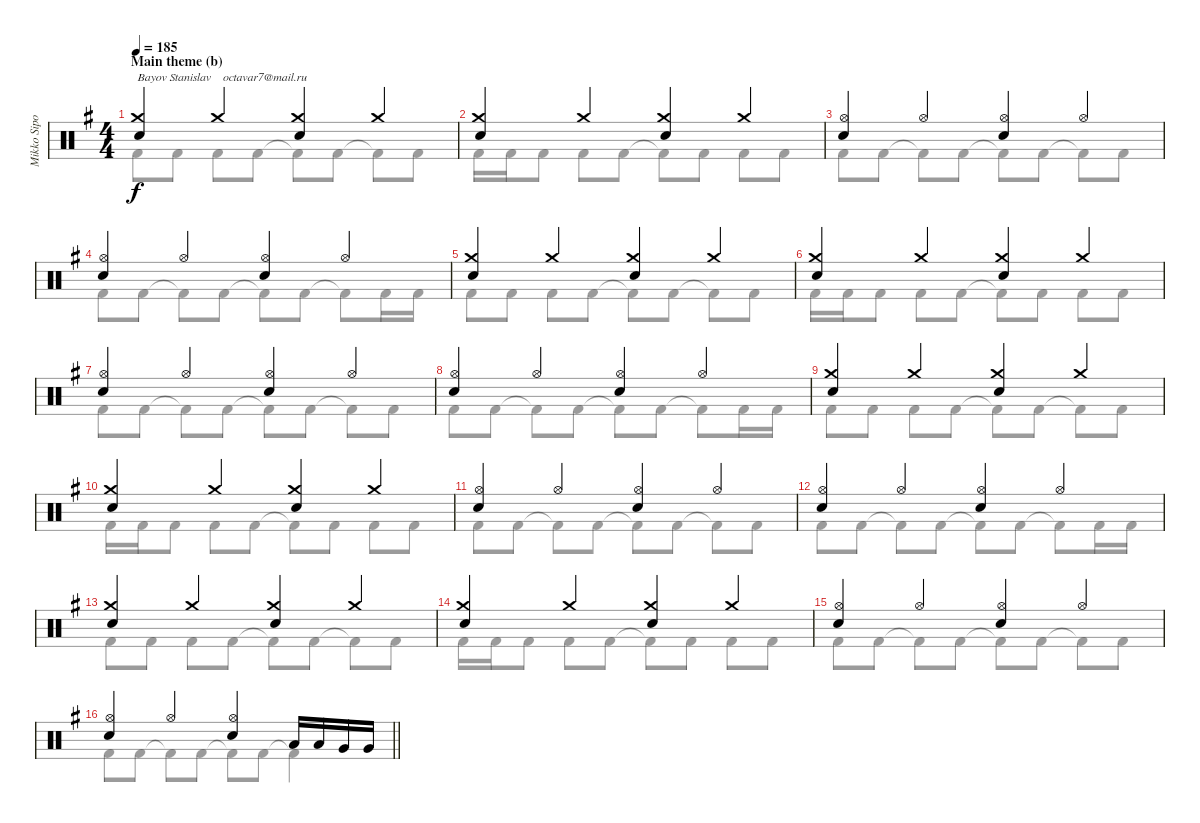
\track ("Mikko Sipola (drums)" "Mikko Sipo") {instrument percussion}
\staff {score}
\articulation defaults
\voice
\ts (4 4)
\section ("" "Main theme (b)")
\tempo 185
\clef neutral
\ks eminor
("Crash medium (hit)" "Electric Snare (hit)").4{txt "Bayov Stanislav    octavar7@mail.ru" dy f} "Crash medium (hit)".4 ("Crash medium (hit)" "Electric Snare (hit)").4 "Crash medium (hit)".4 |
("Crash medium (hit)" "Electric Snare (hit)").4 "Crash medium (hit)".4 ("Crash medium (hit)" "Electric Snare (hit)").4 "Crash medium (hit)".4 |
("Hi-Hat (open)" "Electric Snare (hit)").4 "Hi-Hat (open)".4 ("Hi-Hat (open)" "Electric Snare (hit)").4 "Hi-Hat (open)".4 |
("Hi-Hat (open)" "Electric Snare (hit)").4 "Hi-Hat (open)".4 ("Hi-Hat (open)" "Electric Snare (hit)").4 "Hi-Hat (open)".4 |
("Crash medium (hit)" "Electric Snare (hit)").4 "Crash medium (hit)".4 ("Crash medium (hit)" "Electric Snare (hit)").4 "Crash medium (hit)".4 |
("Crash medium (hit)" "Electric Snare (hit)").4 "Crash medium (hit)".4 ("Crash medium (hit)" "Electric Snare (hit)").4 "Crash medium (hit)".4 |
("Hi-Hat (open)" "Electric Snare (hit)").4 "Hi-Hat (open)".4 ("Hi-Hat (open)" "Electric Snare (hit)").4 "Hi-Hat (open)".4 |
("Hi-Hat (open)" "Electric Snare (hit)").4 "Hi-Hat (open)".4 ("Hi-Hat (open)" "Electric Snare (hit)").4 "Hi-Hat (open)".4 |
("Crash medium (hit)" "Electric Snare (hit)").4 "Crash medium (hit)".4 ("Crash medium (hit)" "Electric Snare (hit)").4 "Crash medium (hit)".4 |
("Crash medium (hit)" "Electric Snare (hit)").4 "Crash medium (hit)".4 ("Crash medium (hit)" "Electric Snare (hit)").4 "Crash medium (hit)".4 |
("Hi-Hat (open)" "Electric Snare (hit)").4 "Hi-Hat (open)".4 ("Hi-Hat (open)" "Electric Snare (hit)").4 "Hi-Hat (open)".4 |
("Hi-Hat (open)" "Electric Snare (hit)").4 "Hi-Hat (open)".4 ("Hi-Hat (open)" "Electric Snare (hit)").4 "Hi-Hat (open)".4 |
("Crash medium (hit)" "Electric Snare (hit)").4 "Crash medium (hit)".4 ("Crash medium (hit)" "Electric Snare (hit)").4 "Crash medium (hit)".4 |
("Crash medium (hit)" "Electric Snare (hit)").4 "Crash medium (hit)".4 ("Crash medium (hit)" "Electric Snare (hit)").4 "Crash medium (hit)".4 |
("Hi-Hat (open)" "Electric Snare (hit)").4 "Hi-Hat (open)".4 ("Hi-Hat (open)" "Electric Snare (hit)").4 "Hi-Hat (open)".4 |
\barLineRight lightlight
("Hi-Hat (open)" "Electric Snare (hit)").4 "Hi-Hat (open)".4 ("Hi-Hat (open)" "Electric Snare (hit)").4 "Low Tom (hit)".16 "Low Tom (hit)".16 "Very Low Tom (hit)".16 "Very Low Tom (hit)".16
\voice
\clef neutral
\ottava regular
\simile none
\ks eminor "Kick (hit) 2".8{dy f} "Kick (hit) 2".8 "Kick (hit) 2".8 "Kick (hit) 2".8 "Kick (hit) 2"{t}.8 "Kick (hit) 2".8 "Kick (hit) 2"{t}.8 "Kick (hit) 2".8
|
"Kick (hit) 2".16 "Kick (hit) 2".16 "Kick (hit) 2".8 "Kick (hit) 2".8 "Kick (hit) 2".8 "Kick (hit) 2"{t}.8 "Kick (hit) 2".8 "Kick (hit) 2".8 "Kick (hit) 2".8 |
"Kick (hit) 2".8 "Kick (hit) 2".8 "Kick (hit) 2"{t}.8 "Kick (hit) 2".8 "Kick (hit) 2"{t}.8 "Kick (hit) 2".8 "Kick (hit) 2"{t}.8 "Kick (hit) 2".8 |
"Kick (hit) 2".8 "Kick (hit) 2".8 "Kick (hit) 2"{t}.8 "Kick (hit) 2".8 "Kick (hit) 2"{t}.8 "Kick (hit) 2".8 "Kick (hit) 2"{t}.8 "Kick (hit) 2".16 "Kick (hit) 2".16 |
"Kick (hit) 2".8 "Kick (hit) 2".8 "Kick (hit) 2".8 "Kick (hit) 2".8 "Kick (hit) 2"{t}.8 "Kick (hit) 2".8 "Kick (hit) 2"{t}.8 "Kick (hit) 2".8 |
"Kick (hit) 2".16 "Kick (hit) 2".16 "Kick (hit) 2".8 "Kick (hit) 2".8 "Kick (hit) 2".8 "Kick (hit) 2"{t}.8 "Kick (hit) 2".8 "Kick (hit) 2".8 "Kick (hit) 2".8 |
"Kick (hit) 2".8 "Kick (hit) 2".8 "Kick (hit) 2"{t}.8 "Kick (hit) 2".8 "Kick (hit) 2"{t}.8 "Kick (hit) 2".8 "Kick (hit) 2"{t}.8 "Kick (hit) 2".8 |
"Kick (hit) 2".8 "Kick (hit) 2".8 "Kick (hit) 2"{t}.8 "Kick (hit) 2".8 "Kick (hit) 2"{t}.8 "Kick (hit) 2".8 "Kick (hit) 2"{t}.8 "Kick (hit) 2".16 "Kick (hit) 2".16 |
"Kick (hit) 2".8 "Kick (hit) 2".8 "Kick (hit) 2".8 "Kick (hit) 2".8 "Kick (hit) 2"{t}.8 "Kick (hit) 2".8 "Kick (hit) 2"{t}.8 "Kick (hit) 2".8 |
"Kick (hit) 2".16 "Kick (hit) 2".16 "Kick (hit) 2".8 "Kick (hit) 2".8 "Kick (hit) 2".8 "Kick (hit) 2"{t}.8 "Kick (hit) 2".8 "Kick (hit) 2".8 "Kick (hit) 2".8 |
"Kick (hit) 2".8 "Kick (hit) 2".8 "Kick (hit) 2"{t}.8 "Kick (hit) 2".8 "Kick (hit) 2"{t}.8 "Kick (hit) 2".8 "Kick (hit) 2"{t}.8 "Kick (hit) 2".8 |
"Kick (hit) 2".8 "Kick (hit) 2".8 "Kick (hit) 2"{t}.8 "Kick (hit) 2".8 "Kick (hit) 2"{t}.8 "Kick (hit) 2".8 "Kick (hit) 2"{t}.8 "Kick (hit) 2".16 "Kick (hit) 2".16 |
"Kick (hit) 2".8 "Kick (hit) 2".8 "Kick (hit) 2".8 "Kick (hit) 2".8 "Kick (hit) 2"{t}.8 "Kick (hit) 2".8 "Kick (hit) 2"{t}.8 "Kick (hit) 2".8 |
"Kick (hit) 2".16 "Kick (hit) 2".16 "Kick (hit) 2".8 "Kick (hit) 2".8 "Kick (hit) 2".8 "Kick (hit) 2"{t}.8 "Kick (hit) 2".8 "Kick (hit) 2".8 "Kick (hit) 2".8 |
"Kick (hit) 2".8 "Kick (hit) 2".8 "Kick (hit) 2"{t}.8 "Kick (hit) 2".8 "Kick (hit) 2"{t}.8 "Kick (hit) 2".8 "Kick (hit) 2"{t}.8 "Kick (hit) 2".8 |
\barLineRight lightlight "Kick (hit) 2".8 "Kick (hit) 2".8 "Kick (hit) 2"{t}.8 "Kick (hit) 2".8 "Kick (hit) 2"{t}.8 "Kick (hit) 2".8 "Kick (hit) 2"{t}.4
